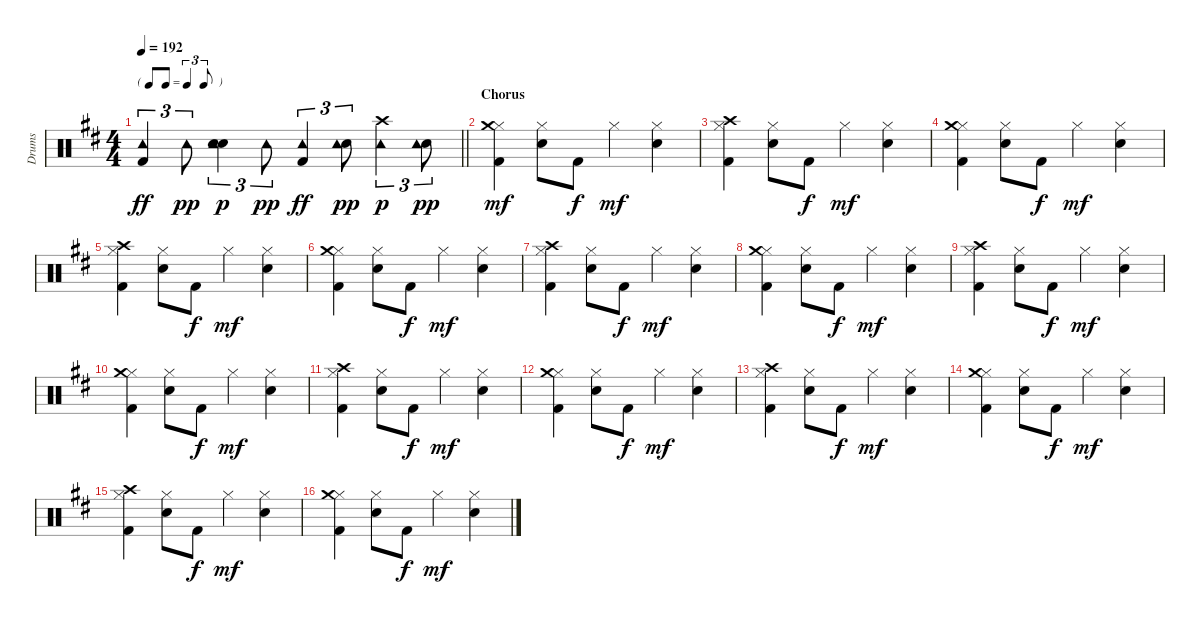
\track ("Drums" "Drums") {instrument percussion}
\staff {score}
\articulation defaults
\ts (4 4)
\tf triplet8th
\tempo 192
\clef neutral
\barLineRight lightlight
\ks bminor
("Tambourine (hit)" "Kick (hit) 2").4{tu (3 2) dy ff} "Tambourine (hit)".8{tu (3 2) dy pp} ("Hand Clap (hit)" "Snare (hit) 2" "Tambourine (hit)").4{tu (3 2) dy p} "Tambourine (hit)".8{tu (3 2) dy pp} ("Tambourine (hit)" "Kick (hit) 2").4{tu (3 2) dy ff} ("Snare (hit) 2" "Tambourine (hit)").8{tu (3 2) dy pp} ("Crash high (hit)" "Tambourine (hit)").4{tu (3 2) dy p} ("Snare (hit) 2" "Tambourine (hit)").8{tu (3 2) dy pp} |
\section ("" "Chorus")
("Hi-Hat (closed)" "Crash medium (hit)" "Kick (hit) 2").4{dy mf} ("Hi-Hat (closed)" "Snare (hit) 2").8 "Kick (hit) 2".8{dy f} "Hi-Hat (closed)".4{dy mf} ("Hi-Hat (closed)" "Snare (hit) 2").4 |
("Hi-Hat (closed)" "Crash high (hit)" "Kick (hit) 2").4 ("Hi-Hat (closed)" "Snare (hit) 2").8 "Kick (hit) 2".8{dy f} "Hi-Hat (closed)".4{dy mf} ("Hi-Hat (closed)" "Snare (hit) 2").4 |
("Hi-Hat (closed)" "Crash medium (hit)" "Kick (hit) 2").4 ("Hi-Hat (closed)" "Snare (hit) 2").8 "Kick (hit) 2".8{dy f} "Hi-Hat (closed)".4{dy mf} ("Hi-Hat (closed)" "Snare (hit) 2").4 |
("Hi-Hat (closed)" "Crash high (hit)" "Kick (hit) 2").4 ("Hi-Hat (closed)" "Snare (hit) 2").8 "Kick (hit) 2".8{dy f} "Hi-Hat (closed)".4{dy mf} ("Hi-Hat (closed)" "Snare (hit) 2").4 |
("Hi-Hat (closed)" "Crash medium (hit)" "Kick (hit) 2").4 ("Hi-Hat (closed)" "Snare (hit) 2").8 "Kick (hit) 2".8{dy f} "Hi-Hat (closed)".4{dy mf} ("Hi-Hat (closed)" "Snare (hit) 2").4 |
("Hi-Hat (closed)" "Crash high (hit)" "Kick (hit) 2").4 ("Hi-Hat (closed)" "Snare (hit) 2").8 "Kick (hit) 2".8{dy f} "Hi-Hat (closed)".4{dy mf} ("Hi-Hat (closed)" "Snare (hit) 2").4 |
("Hi-Hat (closed)" "Crash medium (hit)" "Kick (hit) 2").4 ("Hi-Hat (closed)" "Snare (hit) 2").8 "Kick (hit) 2".8{dy f} "Hi-Hat (closed)".4{dy mf} ("Hi-Hat (closed)" "Snare (hit) 2").4 |
("Hi-Hat (closed)" "Crash high (hit)" "Kick (hit) 2").4 ("Hi-Hat (closed)" "Snare (hit) 2").8 "Kick (hit) 2".8{dy f} "Hi-Hat (closed)".4{dy mf} ("Hi-Hat (closed)" "Snare (hit) 2").4 |
("Hi-Hat (closed)" "Crash medium (hit)" "Kick (hit) 2").4 ("Hi-Hat (closed)" "Snare (hit) 2").8 "Kick (hit) 2".8{dy f} "Hi-Hat (closed)".4{dy mf} ("Hi-Hat (closed)" "Snare (hit) 2").4 |
("Hi-Hat (closed)" "Crash high (hit)" "Kick (hit) 2").4 ("Hi-Hat (closed)" "Snare (hit) 2").8 "Kick (hit) 2".8{dy f} "Hi-Hat (closed)".4{dy mf} ("Hi-Hat (closed)" "Snare (hit) 2").4 |
("Hi-Hat (closed)" "Crash medium (hit)" "Kick (hit) 2").4 ("Hi-Hat (closed)" "Snare (hit) 2").8 "Kick (hit) 2".8{dy f} "Hi-Hat (closed)".4{dy mf} ("Hi-Hat (closed)" "Snare (hit) 2").4 |
("Hi-Hat (closed)" "Crash high (hit)" "Kick (hit) 2").4 ("Hi-Hat (closed)" "Snare (hit) 2").8 "Kick (hit) 2".8{dy f} "Hi-Hat (closed)".4{dy mf} ("Hi-Hat (closed)" "Snare (hit) 2").4 |
("Hi-Hat (closed)" "Crash medium (hit)" "Kick (hit) 2").4 ("Hi-Hat (closed)" "Snare (hit) 2").8 "Kick (hit) 2".8{dy f} "Hi-Hat (closed)".4{dy mf} ("Hi-Hat (closed)" "Snare (hit) 2").4 |
("Hi-Hat (closed)" "Crash high (hit)" "Kick (hit) 2").4 ("Hi-Hat (closed)" "Snare (hit) 2").8 "Kick (hit) 2".8{dy f} "Hi-Hat (closed)".4{dy mf} ("Hi-Hat (closed)" "Snare (hit) 2").4 |
("Hi-Hat (closed)" "Crash medium (hit)" "Kick (hit) 2").4 ("Hi-Hat (closed)" "Snare (hit) 2").8 "Kick (hit) 2".8{dy f} "Hi-Hat (closed)".4{dy mf} ("Hi-Hat (closed)" "Snare (hit) 2").4
